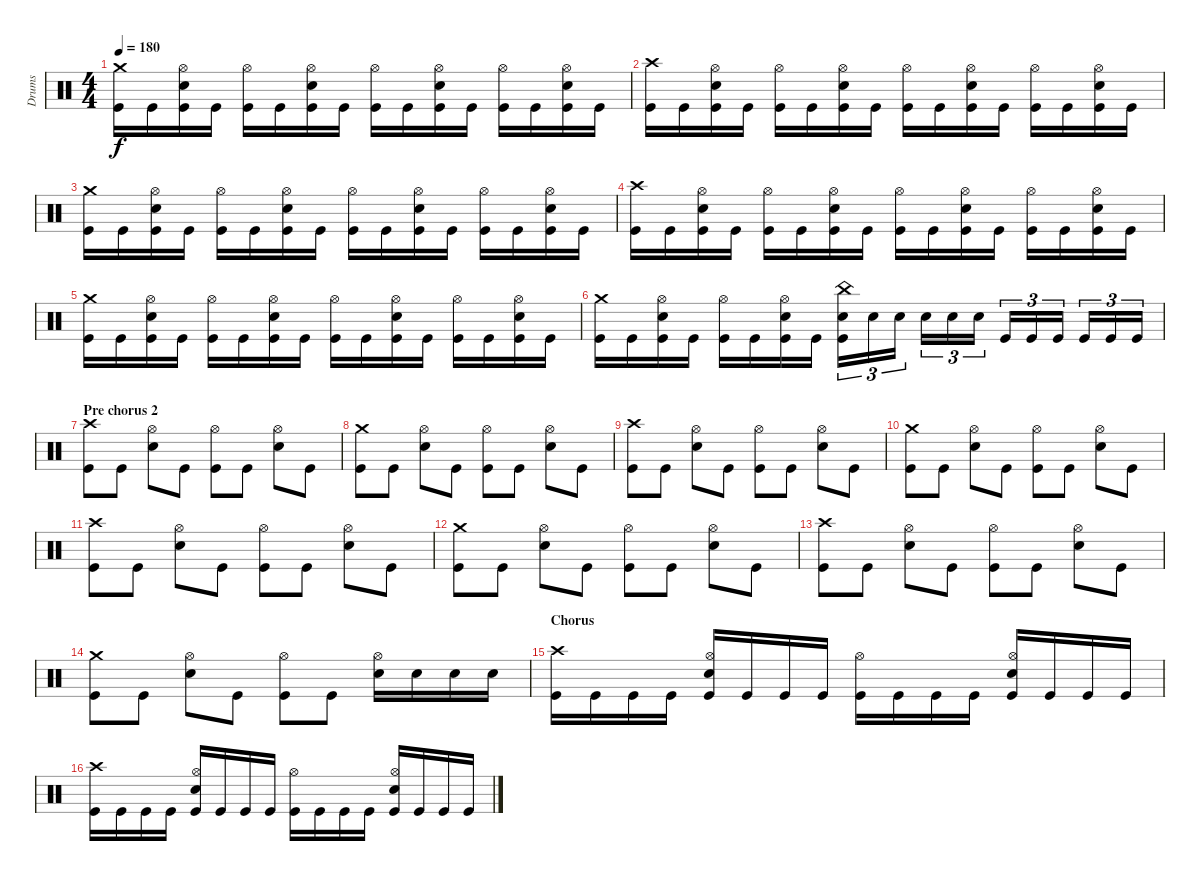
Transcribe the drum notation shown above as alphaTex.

\track ("Drums" "Drums") {instrument percussion}
\staff {score}
\articulation defaults
\ts (4 4)
\tempo 180
\clef neutral
\ks c
("Crash medium (hit)" "Kick (hit)").16{dy f} "Kick (hit)".16 ("Hi-Hat (open)" "Snare (hit) 2" "Kick (hit)").16 "Kick (hit)".16 ("Hi-Hat (open)" "Kick (hit)").16 "Kick (hit)".16 ("Hi-Hat (open)" "Snare (hit) 2" "Kick (hit)").16 "Kick (hit)".16 ("Hi-Hat (open)" "Kick (hit)").16 "Kick (hit)".16 ("Hi-Hat (open)" "Snare (hit) 2" "Kick (hit)").16 "Kick (hit)".16 ("Hi-Hat (open)" "Kick (hit)").16 "Kick (hit)".16 ("Hi-Hat (open)" "Snare (hit) 2" "Kick (hit)").16 "Kick (hit)".16 |
("Crash high (hit)" "Kick (hit)").16 "Kick (hit)".16 ("Hi-Hat (open)" "Snare (hit) 2" "Kick (hit)").16 "Kick (hit)".16 ("Hi-Hat (open)" "Kick (hit)").16 "Kick (hit)".16 ("Hi-Hat (open)" "Snare (hit) 2" "Kick (hit)").16 "Kick (hit)".16 ("Hi-Hat (open)" "Kick (hit)").16 "Kick (hit)".16 ("Hi-Hat (open)" "Snare (hit) 2" "Kick (hit)").16 "Kick (hit)".16 ("Hi-Hat (open)" "Kick (hit)").16 "Kick (hit)".16 ("Hi-Hat (open)" "Snare (hit) 2" "Kick (hit)").16 "Kick (hit)".16 |
("Crash medium (hit)" "Kick (hit)").16 "Kick (hit)".16 ("Hi-Hat (open)" "Snare (hit) 2" "Kick (hit)").16 "Kick (hit)".16 ("Hi-Hat (open)" "Kick (hit)").16 "Kick (hit)".16 ("Hi-Hat (open)" "Snare (hit) 2" "Kick (hit)").16 "Kick (hit)".16 ("Hi-Hat (open)" "Kick (hit)").16 "Kick (hit)".16 ("Hi-Hat (open)" "Snare (hit) 2" "Kick (hit)").16 "Kick (hit)".16 ("Hi-Hat (open)" "Kick (hit)").16 "Kick (hit)".16 ("Hi-Hat (open)" "Snare (hit) 2" "Kick (hit)").16 "Kick (hit)".16 |
("Crash high (hit)" "Kick (hit)").16 "Kick (hit)".16 ("Hi-Hat (open)" "Snare (hit) 2" "Kick (hit)").16 "Kick (hit)".16 ("Hi-Hat (open)" "Kick (hit)").16 "Kick (hit)".16 ("Hi-Hat (open)" "Snare (hit) 2" "Kick (hit)").16 "Kick (hit)".16 ("Hi-Hat (open)" "Kick (hit)").16 "Kick (hit)".16 ("Hi-Hat (open)" "Snare (hit) 2" "Kick (hit)").16 "Kick (hit)".16 ("Hi-Hat (open)" "Kick (hit)").16 "Kick (hit)".16 ("Hi-Hat (open)" "Snare (hit) 2" "Kick (hit)").16 "Kick (hit)".16 |
("Crash medium (hit)" "Kick (hit)").16 "Kick (hit)".16 ("Hi-Hat (open)" "Snare (hit) 2" "Kick (hit)").16 "Kick (hit)".16 ("Hi-Hat (open)" "Kick (hit)").16 "Kick (hit)".16 ("Hi-Hat (open)" "Snare (hit) 2" "Kick (hit)").16 "Kick (hit)".16 ("Hi-Hat (open)" "Kick (hit)").16 "Kick (hit)".16 ("Hi-Hat (open)" "Snare (hit) 2" "Kick (hit)").16 "Kick (hit)".16 ("Hi-Hat (open)" "Kick (hit)").16 "Kick (hit)".16 ("Hi-Hat (open)" "Snare (hit) 2" "Kick (hit)").16 "Kick (hit)".16 |
("Crash medium (hit)" "Kick (hit)").16 "Kick (hit)".16 ("Hi-Hat (open)" "Snare (hit) 2" "Kick (hit)").16 "Kick (hit)".16 ("Hi-Hat (open)" "Kick (hit)").16 "Kick (hit)".16 ("Hi-Hat (open)" "Snare (hit) 2" "Kick (hit)").16 "Kick (hit)".16 ("China (hit)" "Snare (hit) 2" "Kick (hit)").16{tu (3 2)} "Snare (hit) 2".16{tu (3 2)} "Snare (hit) 2".16{tu (3 2)} "Snare (hit) 2".16{tu (3 2)} "Snare (hit) 2".16{tu (3 2)} "Snare (hit) 2".16{tu (3 2)} "Kick (hit)".16{tu (3 2)} "Kick (hit)".16{tu (3 2)} "Kick (hit)".16{tu (3 2)} "Kick (hit)".16{tu (3 2)} "Kick (hit)".16{tu (3 2)} "Kick (hit)".16{tu (3 2)} |
\section ("" "Pre chorus 2")
("Crash high (hit)" "Kick (hit)").8 "Kick (hit)".8 ("Hi-Hat (open)" "Snare (hit) 2").8 "Kick (hit)".8 ("Hi-Hat (open)" "Kick (hit)").8 "Kick (hit)".8 ("Hi-Hat (open)" "Snare (hit) 2").8 "Kick (hit)".8 |
("Crash medium (hit)" "Kick (hit)").8 "Kick (hit)".8 ("Hi-Hat (open)" "Snare (hit) 2").8 "Kick (hit)".8 ("Hi-Hat (open)" "Kick (hit)").8 "Kick (hit)".8 ("Hi-Hat (open)" "Snare (hit) 2").8 "Kick (hit)".8 |
("Crash high (hit)" "Kick (hit)").8 "Kick (hit)".8 ("Hi-Hat (open)" "Snare (hit) 2").8 "Kick (hit)".8 ("Hi-Hat (open)" "Kick (hit)").8 "Kick (hit)".8 ("Hi-Hat (open)" "Snare (hit) 2").8 "Kick (hit)".8 |
("Crash medium (hit)" "Kick (hit)").8 "Kick (hit)".8 ("Hi-Hat (open)" "Snare (hit) 2").8 "Kick (hit)".8 ("Hi-Hat (open)" "Kick (hit)").8 "Kick (hit)".8 ("Hi-Hat (open)" "Snare (hit) 2").8 "Kick (hit)".8 |
("Crash high (hit)" "Kick (hit)").8 "Kick (hit)".8 ("Hi-Hat (open)" "Snare (hit) 2").8 "Kick (hit)".8 ("Hi-Hat (open)" "Kick (hit)").8 "Kick (hit)".8 ("Hi-Hat (open)" "Snare (hit) 2").8 "Kick (hit)".8 |
("Crash medium (hit)" "Kick (hit)").8 "Kick (hit)".8 ("Hi-Hat (open)" "Snare (hit) 2").8 "Kick (hit)".8 ("Hi-Hat (open)" "Kick (hit)").8 "Kick (hit)".8 ("Hi-Hat (open)" "Snare (hit) 2").8 "Kick (hit)".8 |
("Crash high (hit)" "Kick (hit)").8 "Kick (hit)".8 ("Hi-Hat (open)" "Snare (hit) 2").8 "Kick (hit)".8 ("Hi-Hat (open)" "Kick (hit)").8 "Kick (hit)".8 ("Hi-Hat (open)" "Snare (hit) 2").8 "Kick (hit)".8 |
("Crash medium (hit)" "Kick (hit)").8 "Kick (hit)".8 ("Hi-Hat (open)" "Snare (hit) 2").8 "Kick (hit)".8 ("Hi-Hat (open)" "Kick (hit)").8 "Kick (hit)".8 ("Hi-Hat (open)" "Snare (hit) 2").16 "Snare (hit) 2".16 "Snare (hit) 2".16 "Snare (hit) 2".16 |
\section ("" "Chorus")
("Crash high (hit)" "Kick (hit)").16 "Kick (hit)".16 "Kick (hit)".16 "Kick (hit)".16 ("Hi-Hat (open)" "Snare (hit) 2" "Kick (hit)").16 "Kick (hit)".16 "Kick (hit)".16 "Kick (hit)".16 ("Hi-Hat (open)" "Kick (hit)").16 "Kick (hit)".16 "Kick (hit)".16 "Kick (hit)".16 ("Hi-Hat (open)" "Snare (hit) 2" "Kick (hit)").16 "Kick (hit)".16 "Kick (hit)".16 "Kick (hit)".16 |
("Crash high (hit)" "Kick (hit)").16 "Kick (hit)".16 "Kick (hit)".16 "Kick (hit)".16 ("Hi-Hat (open)" "Snare (hit) 2" "Kick (hit)").16 "Kick (hit)".16 "Kick (hit)".16 "Kick (hit)".16 ("Hi-Hat (open)" "Kick (hit)").16 "Kick (hit)".16 "Kick (hit)".16 "Kick (hit)".16 ("Hi-Hat (open)" "Snare (hit) 2" "Kick (hit)").16 "Kick (hit)".16 "Kick (hit)".16 "Kick (hit)".16
